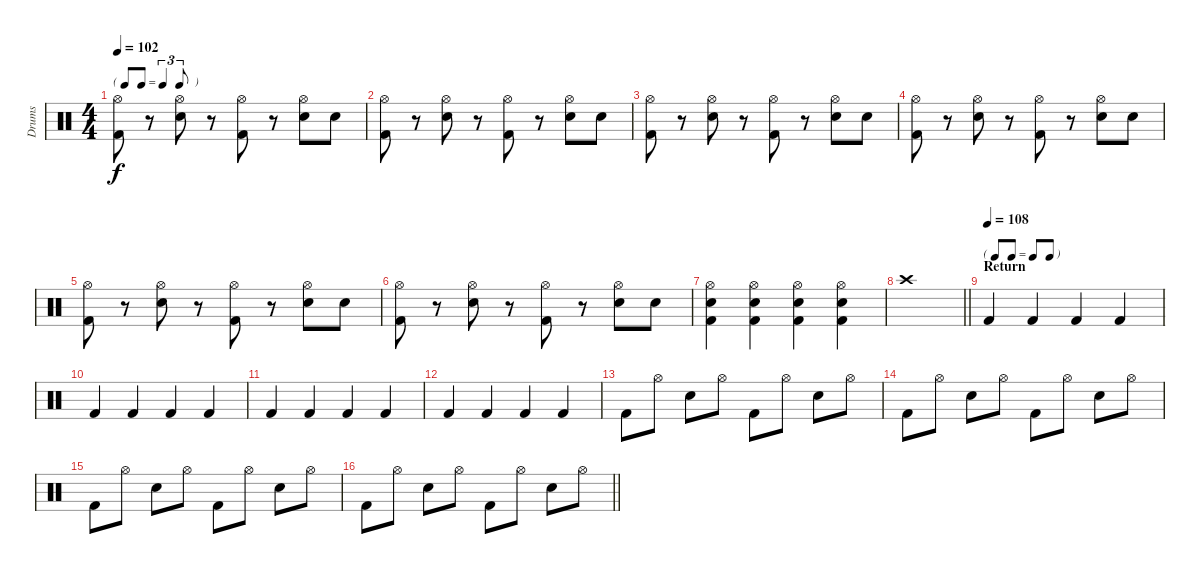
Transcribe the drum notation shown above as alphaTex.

\track ("Drums" "Drums") {instrument percussion}
\staff {score}
\articulation defaults
\ts (4 4)
\tf triplet8th
\tempo 102
\clef neutral
\ks c
("Hi-Hat (open)" "Kick (hit) 2").8{dy f} r.8 ("Hi-Hat (open)" "Snare (hit) 2").8 r.8 ("Hi-Hat (open)" "Kick (hit) 2").8 r.8 ("Hi-Hat (open)" "Snare (hit) 2").8 "Snare (hit) 2".8 |
("Hi-Hat (open)" "Kick (hit) 2").8 r.8 ("Hi-Hat (open)" "Snare (hit) 2").8 r.8 ("Hi-Hat (open)" "Kick (hit) 2").8 r.8 ("Hi-Hat (open)" "Snare (hit) 2").8 "Snare (hit) 2".8 |
("Hi-Hat (open)" "Kick (hit) 2").8 r.8 ("Hi-Hat (open)" "Snare (hit) 2").8 r.8 ("Hi-Hat (open)" "Kick (hit) 2").8 r.8 ("Hi-Hat (open)" "Snare (hit) 2").8 "Snare (hit) 2".8 |
("Hi-Hat (open)" "Kick (hit) 2").8 r.8 ("Hi-Hat (open)" "Snare (hit) 2").8 r.8 ("Hi-Hat (open)" "Kick (hit) 2").8 r.8 ("Hi-Hat (open)" "Snare (hit) 2").8 "Snare (hit) 2".8 |
("Hi-Hat (open)" "Kick (hit) 2").8 r.8 ("Hi-Hat (open)" "Snare (hit) 2").8 r.8 ("Hi-Hat (open)" "Kick (hit) 2").8 r.8 ("Hi-Hat (open)" "Snare (hit) 2").8 "Snare (hit) 2".8 |
("Hi-Hat (open)" "Kick (hit) 2").8 r.8 ("Hi-Hat (open)" "Snare (hit) 2").8 r.8 ("Hi-Hat (open)" "Kick (hit) 2").8 r.8 ("Hi-Hat (open)" "Snare (hit) 2").8 "Snare (hit) 2".8 |
("Hi-Hat (open)" "Snare (hit) 2" "Kick (hit) 2").4 ("Hi-Hat (open)" "Snare (hit) 2" "Kick (hit) 2").4 ("Hi-Hat (open)" "Snare (hit) 2" "Kick (hit) 2").4 ("Hi-Hat (open)" "Snare (hit) 2" "Kick (hit) 2").4 |
\barLineRight lightlight "Crash high (hit)".1
|
\tf none
\section ("" "Return")
\tempo (108)
"Kick (hit) 2".4 "Kick (hit) 2".4 "Kick (hit) 2".4 "Kick (hit) 2".4 |
"Kick (hit) 2".4 "Kick (hit) 2".4 "Kick (hit) 2".4 "Kick (hit) 2".4 |
"Kick (hit) 2".4 "Kick (hit) 2".4 "Kick (hit) 2".4 "Kick (hit) 2".4 |
"Kick (hit) 2".4 "Kick (hit) 2".4 "Kick (hit) 2".4 "Kick (hit) 2".4 |
"Kick (hit) 2".8 "Hi-Hat (open)".8 "Snare (hit) 2".8 "Hi-Hat (open)".8 "Kick (hit) 2".8 "Hi-Hat (open)".8 "Snare (hit) 2".8 "Hi-Hat (open)".8 |
"Kick (hit) 2".8 "Hi-Hat (open)".8 "Snare (hit) 2".8 "Hi-Hat (open)".8 "Kick (hit) 2".8 "Hi-Hat (open)".8 "Snare (hit) 2".8 "Hi-Hat (open)".8 |
"Kick (hit) 2".8 "Hi-Hat (open)".8 "Snare (hit) 2".8 "Hi-Hat (open)".8 "Kick (hit) 2".8 "Hi-Hat (open)".8 "Snare (hit) 2".8 "Hi-Hat (open)".8 |
\barLineRight lightlight "Kick (hit) 2".8 "Hi-Hat (open)".8 "Snare (hit) 2".8 "Hi-Hat (open)".8 "Kick (hit) 2".8 "Hi-Hat (open)".8 "Snare (hit) 2".8 "Hi-Hat (open)".8
